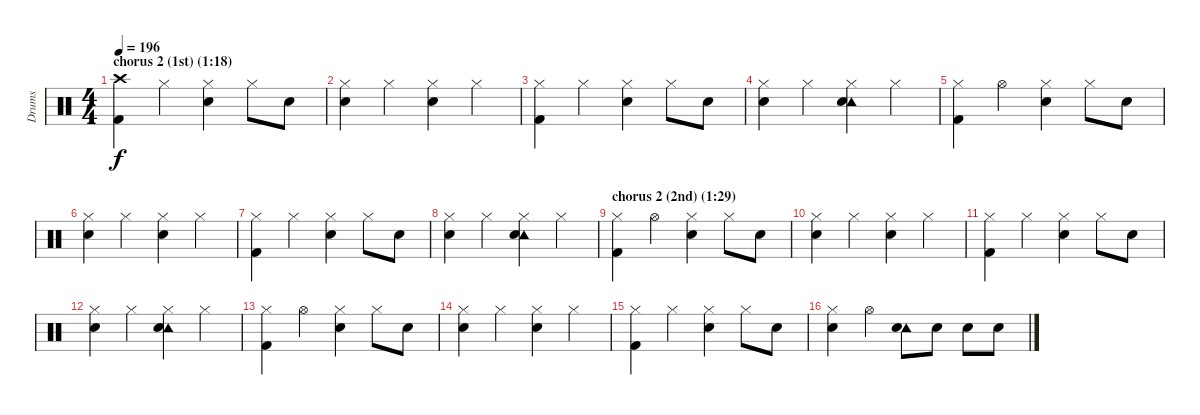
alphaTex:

\track ("Drums" "Drums") {instrument percussion}
\staff {score}
\articulation defaults
\ts (4 4)
\section ("" "chorus 2 (1st) (1:18)")
\tempo 196
\clef neutral
\ks c
("Crash high (hit)" "Kick (hit) 2").4{dy f} "Hi-Hat (closed)".4 ("Hi-Hat (closed)" "Snare (hit) 2").4 "Hi-Hat (closed)".8 "Snare (hit) 2".8 |
("Hi-Hat (closed)" "Snare (hit) 2").4 "Hi-Hat (closed)".4 ("Hi-Hat (closed)" "Snare (hit) 2").4 "Hi-Hat (closed)".4 |
("Hi-Hat (closed)" "Kick (hit) 2").4 "Hi-Hat (closed)".4 ("Hi-Hat (closed)" "Snare (hit) 2").4 "Hi-Hat (closed)".8 "Snare (hit) 2".8 |
("Hi-Hat (closed)" "Snare (hit) 2").4 "Hi-Hat (closed)".4 ("Hi-Hat (closed)" "Tambourine (hit)" "Snare (hit) 2").4 "Hi-Hat (closed)".4 |
("Hi-Hat (closed)" "Kick (hit) 2").4 "Hi-Hat (open)".4 ("Hi-Hat (closed)" "Snare (hit) 2").4 "Hi-Hat (closed)".8 "Snare (hit) 2".8 |
("Hi-Hat (closed)" "Snare (hit) 2").4 "Hi-Hat (closed)".4 ("Hi-Hat (closed)" "Snare (hit) 2").4 "Hi-Hat (closed)".4 |
("Hi-Hat (closed)" "Kick (hit) 2").4 "Hi-Hat (closed)".4 ("Hi-Hat (closed)" "Snare (hit) 2").4 "Hi-Hat (closed)".8 "Snare (hit) 2".8 |
("Hi-Hat (closed)" "Snare (hit) 2").4 "Hi-Hat (closed)".4 ("Hi-Hat (closed)" "Tambourine (hit)" "Snare (hit) 2").4 "Hi-Hat (closed)".4 |
\section ("" "chorus 2 (2nd) (1:29)")
("Hi-Hat (closed)" "Kick (hit) 2").4 "Hi-Hat (open)".4 ("Hi-Hat (closed)" "Snare (hit) 2").4 "Hi-Hat (closed)".8 "Snare (hit) 2".8 |
("Hi-Hat (closed)" "Snare (hit) 2").4 "Hi-Hat (closed)".4 ("Hi-Hat (closed)" "Snare (hit) 2").4 "Hi-Hat (closed)".4 |
("Hi-Hat (closed)" "Kick (hit) 2").4 "Hi-Hat (closed)".4 ("Hi-Hat (closed)" "Snare (hit) 2").4 "Hi-Hat (closed)".8 "Snare (hit) 2".8 |
("Hi-Hat (closed)" "Snare (hit) 2").4 "Hi-Hat (closed)".4 ("Hi-Hat (closed)" "Tambourine (hit)" "Snare (hit) 2").4 "Hi-Hat (closed)".4 |
("Hi-Hat (closed)" "Kick (hit) 2").4 "Hi-Hat (open)".4 ("Hi-Hat (closed)" "Snare (hit) 2").4 "Hi-Hat (closed)".8 "Snare (hit) 2".8 |
("Hi-Hat (closed)" "Snare (hit) 2").4 "Hi-Hat (closed)".4 ("Hi-Hat (closed)" "Snare (hit) 2").4 "Hi-Hat (closed)".4 |
("Hi-Hat (closed)" "Kick (hit) 2").4 "Hi-Hat (closed)".4 ("Hi-Hat (closed)" "Snare (hit) 2").4 "Hi-Hat (closed)".8 "Snare (hit) 2".8 |
("Hi-Hat (closed)" "Snare (hit) 2").4 "Hi-Hat (open)".4 ("Tambourine (hit)" "Snare (hit) 2").8 "Snare (hit) 2".8 "Snare (hit) 2".8 "Snare (hit) 2".8
